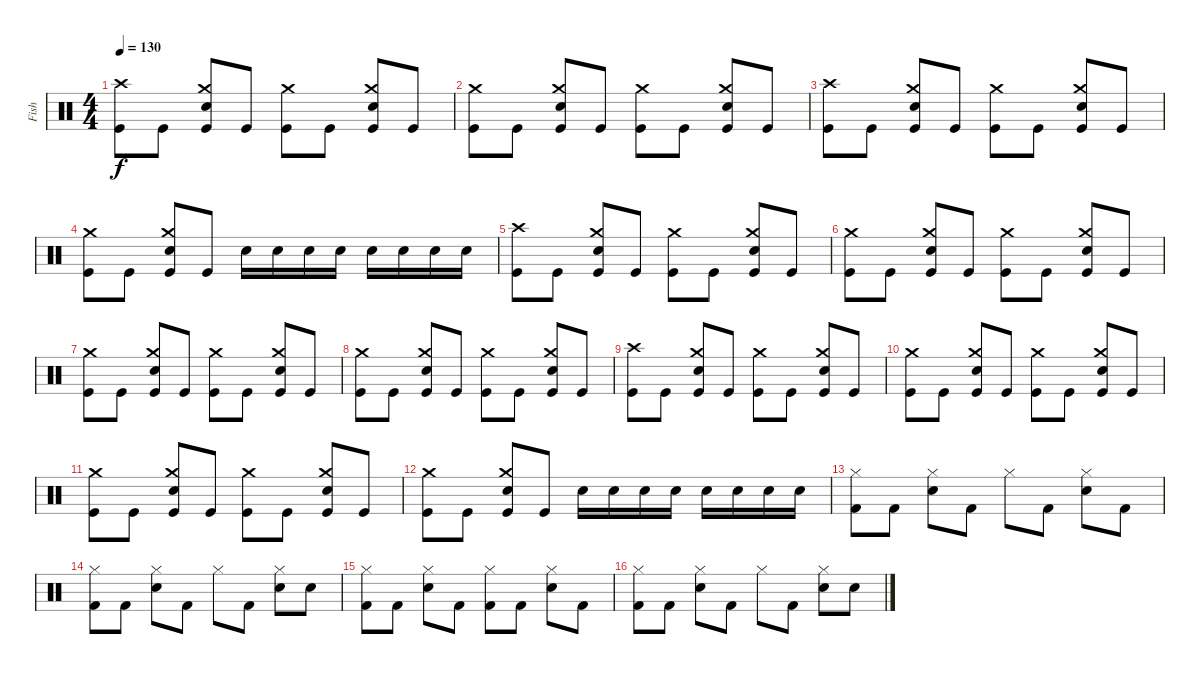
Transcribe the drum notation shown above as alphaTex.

\track ("Fish" "Fish") {instrument percussion}
\staff {score}
\articulation defaults
\ts (4 4)
\tempo 130
\clef neutral
\ks c
("Crash high (hit)" "Kick (hit)").8{dy f} "Kick (hit)".8 ("Crash medium (hit)" "Electric Snare (hit)" "Kick (hit)").8 "Kick (hit)".8 ("Crash medium (hit)" "Kick (hit)").8 "Kick (hit)".8 ("Crash medium (hit)" "Electric Snare (hit)" "Kick (hit)").8 "Kick (hit)".8 |
("Crash medium (hit)" "Kick (hit)").8 "Kick (hit)".8 ("Crash medium (hit)" "Electric Snare (hit)" "Kick (hit)").8 "Kick (hit)".8 ("Crash medium (hit)" "Kick (hit)").8 "Kick (hit)".8 ("Crash medium (hit)" "Electric Snare (hit)" "Kick (hit)").8 "Kick (hit)".8 |
("Crash high (hit)" "Kick (hit)").8 "Kick (hit)".8 ("Crash medium (hit)" "Electric Snare (hit)" "Kick (hit)").8 "Kick (hit)".8 ("Crash medium (hit)" "Kick (hit)").8 "Kick (hit)".8 ("Crash medium (hit)" "Electric Snare (hit)" "Kick (hit)").8 "Kick (hit)".8 |
("Crash medium (hit)" "Kick (hit)").8 "Kick (hit)".8 ("Crash medium (hit)" "Electric Snare (hit)" "Kick (hit)").8 "Kick (hit)".8 "Snare (hit) 2".16 "Snare (hit) 2".16 "Snare (hit) 2".16 "Snare (hit) 2".16 "Snare (hit) 2".16 "Snare (hit) 2".16 "Snare (hit) 2".16 "Snare (hit) 2".16 |
("Crash high (hit)" "Kick (hit)").8 "Kick (hit)".8 ("Crash medium (hit)" "Electric Snare (hit)" "Kick (hit)").8 "Kick (hit)".8 ("Crash medium (hit)" "Kick (hit)").8 "Kick (hit)".8 ("Crash medium (hit)" "Electric Snare (hit)" "Kick (hit)").8 "Kick (hit)".8 |
("Crash medium (hit)" "Kick (hit)").8 "Kick (hit)".8 ("Crash medium (hit)" "Electric Snare (hit)" "Kick (hit)").8 "Kick (hit)".8 ("Crash medium (hit)" "Kick (hit)").8 "Kick (hit)".8 ("Crash medium (hit)" "Electric Snare (hit)" "Kick (hit)").8 "Kick (hit)".8 |
("Crash medium (hit)" "Kick (hit)").8 "Kick (hit)".8 ("Crash medium (hit)" "Electric Snare (hit)" "Kick (hit)").8 "Kick (hit)".8 ("Crash medium (hit)" "Kick (hit)").8 "Kick (hit)".8 ("Crash medium (hit)" "Electric Snare (hit)" "Kick (hit)").8 "Kick (hit)".8 |
("Crash medium (hit)" "Kick (hit)").8 "Kick (hit)".8 ("Crash medium (hit)" "Electric Snare (hit)" "Kick (hit)").8 "Kick (hit)".8 ("Crash medium (hit)" "Kick (hit)").8 "Kick (hit)".8 ("Crash medium (hit)" "Electric Snare (hit)" "Kick (hit)").8 "Kick (hit)".8 |
("Crash high (hit)" "Kick (hit)").8 "Kick (hit)".8 ("Crash medium (hit)" "Electric Snare (hit)" "Kick (hit)").8 "Kick (hit)".8 ("Crash medium (hit)" "Kick (hit)").8 "Kick (hit)".8 ("Crash medium (hit)" "Electric Snare (hit)" "Kick (hit)").8 "Kick (hit)".8 |
("Crash medium (hit)" "Kick (hit)").8 "Kick (hit)".8 ("Crash medium (hit)" "Electric Snare (hit)" "Kick (hit)").8 "Kick (hit)".8 ("Crash medium (hit)" "Kick (hit)").8 "Kick (hit)".8 ("Crash medium (hit)" "Electric Snare (hit)" "Kick (hit)").8 "Kick (hit)".8 |
("Crash medium (hit)" "Kick (hit)").8 "Kick (hit)".8 ("Crash medium (hit)" "Electric Snare (hit)" "Kick (hit)").8 "Kick (hit)".8 ("Crash medium (hit)" "Kick (hit)").8 "Kick (hit)".8 ("Crash medium (hit)" "Electric Snare (hit)" "Kick (hit)").8 "Kick (hit)".8 |
("Crash medium (hit)" "Kick (hit)").8 "Kick (hit)".8 ("Crash medium (hit)" "Electric Snare (hit)" "Kick (hit)").8 "Kick (hit)".8 "Snare (hit) 2".16 "Snare (hit) 2".16 "Snare (hit) 2".16 "Snare (hit) 2".16 "Snare (hit) 2".16 "Snare (hit) 2".16 "Snare (hit) 2".16 "Snare (hit) 2".16 |
("Hi-Hat (closed)" "Kick (hit) 2").8 "Kick (hit) 2".8 ("Hi-Hat (closed)" "Electric Snare (hit)").8 "Kick (hit) 2".8 "Hi-Hat (closed)".8 "Kick (hit) 2".8 ("Hi-Hat (closed)" "Electric Snare (hit)").8 "Kick (hit) 2".8 |
("Hi-Hat (closed)" "Kick (hit) 2").8 "Kick (hit) 2".8 ("Hi-Hat (closed)" "Electric Snare (hit)").8 "Kick (hit) 2".8 "Hi-Hat (closed)".8 "Kick (hit) 2".8 ("Hi-Hat (closed)" "Electric Snare (hit)").8 "Electric Snare (hit)".8 |
("Hi-Hat (closed)" "Kick (hit) 2").8 "Kick (hit) 2".8 ("Hi-Hat (closed)" "Electric Snare (hit)").8 "Kick (hit) 2".8 ("Hi-Hat (closed)" "Kick (hit) 2").8 "Kick (hit) 2".8 ("Hi-Hat (closed)" "Electric Snare (hit)").8 "Kick (hit) 2".8 |
("Hi-Hat (closed)" "Kick (hit) 2").8 "Kick (hit) 2".8 ("Hi-Hat (closed)" "Electric Snare (hit)").8 "Kick (hit) 2".8 "Hi-Hat (closed)".8 "Kick (hit) 2".8 ("Hi-Hat (closed)" "Electric Snare (hit)").8 "Electric Snare (hit)".8
